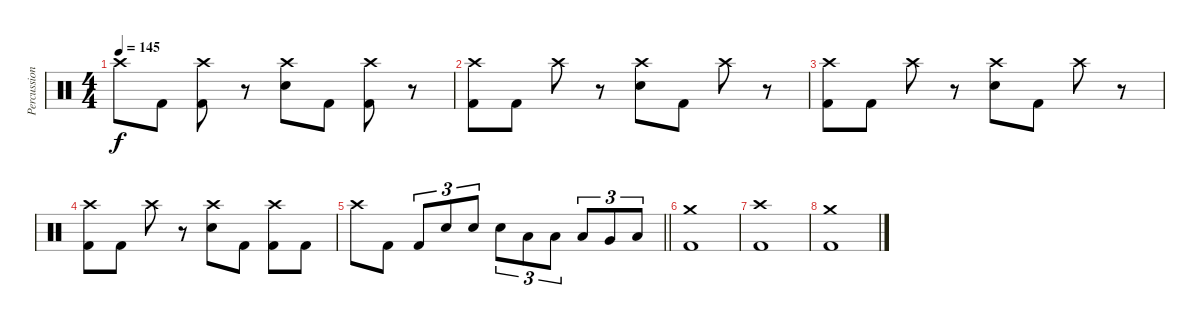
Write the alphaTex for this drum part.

\track ("Percussion" "Percussion") {instrument percussion}
\staff {score}
\articulation defaults
\ts (4 4)
\tempo 145
\clef neutral
\ks c "Crash high (hit)".8{dy f} "Kick (hit) 2".8
("Crash high (hit)" "Kick (hit) 2").8 r.8 ("Crash high (hit)" "Snare (hit) 2").8 "Kick (hit) 2".8 ("Crash high (hit)" "Kick (hit) 2").8 r.8 |
("Crash high (hit)" "Kick (hit) 2").8 "Kick (hit) 2".8 "Crash high (hit)".8 r.8 ("Crash high (hit)" "Snare (hit) 2").8 "Kick (hit) 2".8 "Crash high (hit)".8 r.8 |
("Crash high (hit)" "Kick (hit) 2").8 "Kick (hit) 2".8 "Crash high (hit)".8 r.8 ("Crash high (hit)" "Snare (hit) 2").8 "Kick (hit) 2".8 "Crash high (hit)".8 r.8 |
("Crash high (hit)" "Kick (hit) 2").8 "Kick (hit) 2".8 "Crash high (hit)".8 r.8 ("Crash high (hit)" "Snare (hit) 2").8 "Kick (hit) 2".8 ("Crash high (hit)" "Kick (hit) 2").8 "Kick (hit) 2".8 |
\barLineRight lightlight "Crash high (hit)".8 "Kick (hit) 2".8 "Kick (hit) 2".8{tu (3 2)} "Snare (hit) 2".8{tu (3 2)} "Snare (hit) 2".8{tu (3 2)} "Snare (hit) 2".8{tu (3 2)} "Low Tom (hit)".8{tu (3 2)} "Low Tom (hit)".8{tu (3 2)} "Low Tom (hit)".8{tu (3 2)} "Very Low Tom (hit)".8{tu (3 2)} "Low Floor Tom (hit)".8{tu (3 2)}
|
("Crash medium (hit)" "Kick (hit) 2").1 |
("Crash high (hit)" "Kick (hit) 2").1 |
("Crash medium (hit)" "Kick (hit) 2").1
